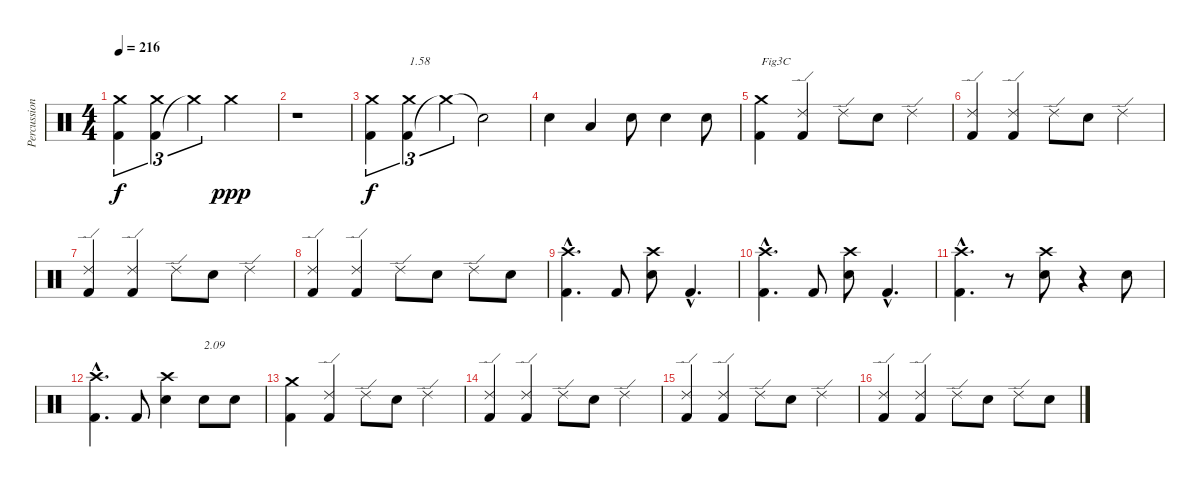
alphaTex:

\track ("Percussion" "Percussion") {instrument percussion}
\staff {score}
\articulation defaults
\ts (4 4)
\tempo 216
\clef neutral
\ks c
("Kick (hit) 2" "Crash medium (hit)").4{tu (3 2) dy f} ("Kick (hit) 2" "Crash medium (hit)").4{tu (3 2)} "Crash medium (hit)"{t}.4{tu (3 2)} "Crash medium (hit)".2{dy ppp} |
r.1 |
("Kick (hit) 2" "Crash medium (hit)").4{tu (3 2) dy f} ("Kick (hit) 2" "Crash medium (hit)").4{tu (3 2) txt "1.58"} "Crash medium (hit)"{t}.4{tu (3 2)} "Snare (hit)"{t}.2 |
"Electric Snare (hit)".4 "Low Floor Tom (hit)".4 "Electric Snare (hit)".8 "Electric Snare (hit)".4 "Electric Snare (hit)".8 |
("Kick (hit) 2" "Crash medium (hit)").4{txt "Fig3C"} ("Kick (hit) 2" "Ride (edge) 2").4 "Ride (edge) 2".8 "Electric Snare (hit)".8 "Ride (edge) 2".4 |
("Kick (hit) 2" "Ride (edge) 2").4 ("Kick (hit) 2" "Ride (edge) 2").4 "Ride (edge) 2".8 "Electric Snare (hit)".8 "Ride (edge) 2".4 |
("Kick (hit) 2" "Ride (edge) 2").4 ("Kick (hit) 2" "Ride (edge) 2").4 "Ride (edge) 2".8 "Electric Snare (hit)".8 "Ride (edge) 2".4 |
("Kick (hit) 2" "Ride (edge) 2").4 ("Kick (hit) 2" "Ride (edge) 2").4 "Ride (edge) 2".8 "Electric Snare (hit)".8 "Ride (edge) 2".8 "Electric Snare (hit)".8 |
("Kick (hit) 2"{hac} "Crash high (hit)"{hac}).4{d} "Kick (hit) 2".8 ("Electric Snare (hit)" "Crash high (hit)").8 "Kick (hit) 2"{hac}.4{d} |
("Kick (hit) 2"{hac} "Crash high (hit)"{hac}).4{d} "Kick (hit) 2".8 ("Electric Snare (hit)" "Crash high (hit)").8 "Kick (hit) 2"{hac}.4{d} |
("Kick (hit) 2"{hac} "Crash high (hit)"{hac}).4{d} r.8 ("Electric Snare (hit)" "Crash high (hit)").8 r.4 "Electric Snare (hit)".8 |
("Kick (hit) 2"{hac} "Crash high (hit)"{hac}).4{d} "Kick (hit) 2".8 ("Electric Snare (hit)" "Crash high (hit)").4 "Electric Snare (hit)".8{txt "2.09"} "Electric Snare (hit)".8 |
("Kick (hit) 2" "Crash medium (hit)").4 ("Kick (hit) 2" "Ride (edge) 2").4 "Ride (edge) 2".8 "Electric Snare (hit)".8 "Ride (edge) 2".4 |
("Kick (hit) 2" "Ride (edge) 2").4 ("Kick (hit) 2" "Ride (edge) 2").4 "Ride (edge) 2".8 "Electric Snare (hit)".8 "Ride (edge) 2".4 |
("Kick (hit) 2" "Ride (edge) 2").4 ("Kick (hit) 2" "Ride (edge) 2").4 "Ride (edge) 2".8 "Electric Snare (hit)".8 "Ride (edge) 2".4 |
("Kick (hit) 2" "Ride (edge) 2").4 ("Kick (hit) 2" "Ride (edge) 2").4 "Ride (edge) 2".8 "Electric Snare (hit)".8 "Ride (edge) 2".8 "Electric Snare (hit)".8
